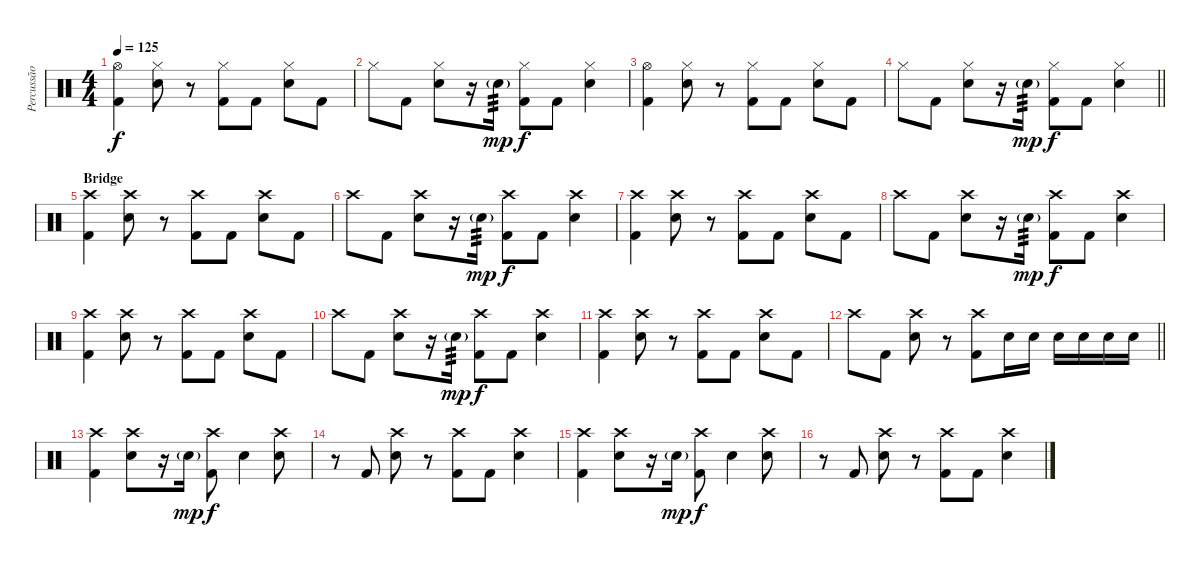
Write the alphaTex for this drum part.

\track ("Percussão" "Percussão") {instrument percussion}
\staff {score}
\articulation defaults
\ts (4 4)
\tempo 125
\clef neutral
\ks c
("Hi-Hat (open)" "Kick (hit) 2").4{dy f} ("Hi-Hat (closed)" "Electric Snare (hit)").8 r.8 ("Hi-Hat (closed)" "Kick (hit) 2").8 "Kick (hit) 2".8 ("Hi-Hat (closed)" "Electric Snare (hit)").8 "Kick (hit) 2".8 |
"Hi-Hat (closed)".8 "Kick (hit) 2".8 ("Hi-Hat (closed)" "Electric Snare (hit)").8 r.16 "Electric Snare (hit)"{g}.16{tp 3 dy mp} ("Hi-Hat (closed)" "Kick (hit) 2").8{dy f} "Kick (hit) 2".8 ("Hi-Hat (closed)" "Electric Snare (hit)").4 |
("Hi-Hat (open)" "Kick (hit) 2").4 ("Hi-Hat (closed)" "Electric Snare (hit)").8 r.8 ("Hi-Hat (closed)" "Kick (hit) 2").8 "Kick (hit) 2".8 ("Hi-Hat (closed)" "Electric Snare (hit)").8 "Kick (hit) 2".8 |
\barLineRight lightlight "Hi-Hat (closed)".8 "Kick (hit) 2".8
("Hi-Hat (closed)" "Electric Snare (hit)").8 r.16 "Electric Snare (hit)"{g}.16{tp 3 dy mp} ("Hi-Hat (closed)" "Kick (hit) 2").8{dy f} "Kick (hit) 2".8 ("Hi-Hat (closed)" "Electric Snare (hit)").4 |
\section ("" "Bridge")
("Crash high (hit)" "Kick (hit) 2").4 ("Crash high (hit)" "Electric Snare (hit)").8 r.8 ("Crash high (hit)" "Kick (hit) 2").8 "Kick (hit) 2".8 ("Crash high (hit)" "Electric Snare (hit)").8 "Kick (hit) 2".8 |
"Crash high (hit)".8 "Kick (hit) 2".8 ("Crash high (hit)" "Electric Snare (hit)").8 r.16 "Electric Snare (hit)"{g}.16{tp 3 dy mp} ("Crash high (hit)" "Kick (hit) 2").8{dy f} "Kick (hit) 2".8 ("Crash high (hit)" "Electric Snare (hit)").4 |
("Crash high (hit)" "Kick (hit) 2").4 ("Crash high (hit)" "Electric Snare (hit)").8 r.8 ("Crash high (hit)" "Kick (hit) 2").8 "Kick (hit) 2".8 ("Crash high (hit)" "Electric Snare (hit)").8 "Kick (hit) 2".8 |
"Crash high (hit)".8 "Kick (hit) 2".8 ("Crash high (hit)" "Electric Snare (hit)").8 r.16 "Electric Snare (hit)"{g}.16{tp 3 dy mp} ("Crash high (hit)" "Kick (hit) 2").8{dy f} "Kick (hit) 2".8 ("Crash high (hit)" "Electric Snare (hit)").4 |
("Crash high (hit)" "Kick (hit) 2").4 ("Crash high (hit)" "Electric Snare (hit)").8 r.8 ("Crash high (hit)" "Kick (hit) 2").8 "Kick (hit) 2".8 ("Crash high (hit)" "Electric Snare (hit)").8 "Kick (hit) 2".8 |
"Crash high (hit)".8 "Kick (hit) 2".8 ("Crash high (hit)" "Electric Snare (hit)").8 r.16 "Electric Snare (hit)"{g}.16{tp 3 dy mp} ("Crash high (hit)" "Kick (hit) 2").8{dy f} "Kick (hit) 2".8 ("Crash high (hit)" "Electric Snare (hit)").4 |
("Crash high (hit)" "Kick (hit) 2").4 ("Crash high (hit)" "Electric Snare (hit)").8 r.8 ("Crash high (hit)" "Kick (hit) 2").8 "Kick (hit) 2".8 ("Crash high (hit)" "Electric Snare (hit)").8 "Kick (hit) 2".8 |
\barLineRight lightlight "Crash high (hit)".8 "Kick (hit) 2".8
("Crash high (hit)" "Electric Snare (hit)").8 r.8 ("Crash high (hit)" "Kick (hit) 2").8 "Electric Snare (hit)".16 "Electric Snare (hit)".16 "Electric Snare (hit)".16 "Electric Snare (hit)".16 "Electric Snare (hit)".16 "Electric Snare (hit)".16 |
("Crash high (hit)" "Kick (hit) 2").4 ("Crash high (hit)" "Electric Snare (hit)").8 r.16 "Electric Snare (hit)"{g}.16{dy mp} ("Crash high (hit)" "Kick (hit) 2").8{dy f} "Electric Snare (hit)".4 ("Crash high (hit)" "Electric Snare (hit)").8 |
r.8 "Kick (hit) 2".8 ("Crash high (hit)" "Electric Snare (hit)").8 r.8 ("Crash high (hit)" "Kick (hit) 2").8 "Kick (hit) 2".8 ("Crash high (hit)" "Electric Snare (hit)").4 |
("Crash high (hit)" "Kick (hit) 2").4 ("Crash high (hit)" "Electric Snare (hit)").8 r.16 "Electric Snare (hit)"{g}.16{dy mp} ("Crash high (hit)" "Kick (hit) 2").8{dy f} "Electric Snare (hit)".4 ("Crash high (hit)" "Electric Snare (hit)").8 |
r.8 "Kick (hit) 2".8 ("Crash high (hit)" "Electric Snare (hit)").8 r.8 ("Crash high (hit)" "Kick (hit) 2").8 "Kick (hit) 2".8 ("Crash high (hit)" "Electric Snare (hit)").4
